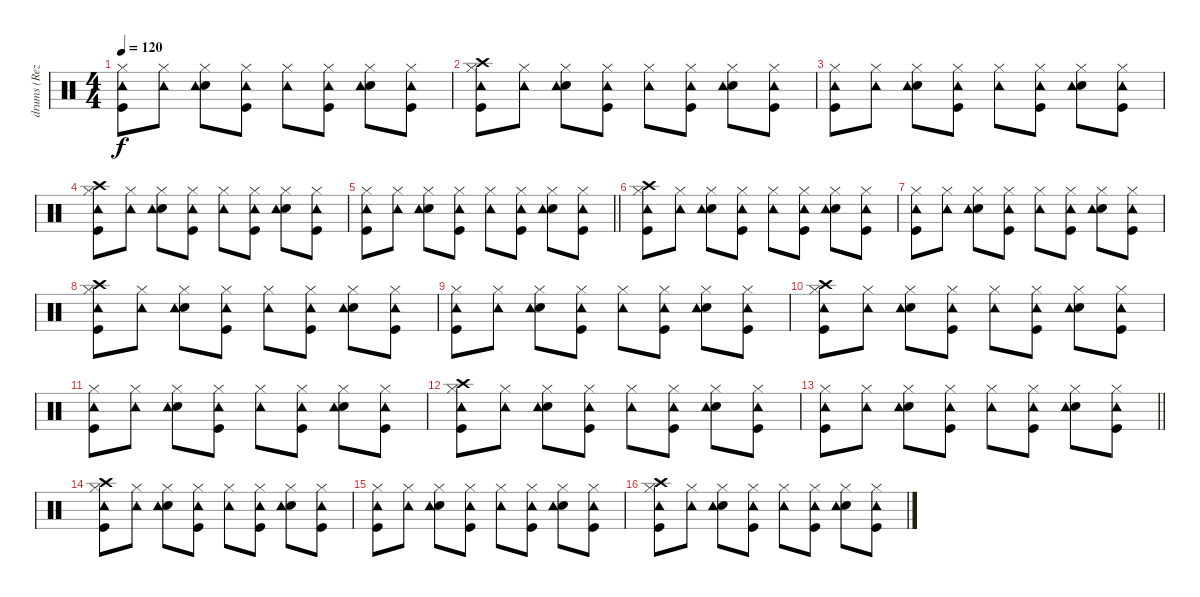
\track ("drums (Reza)" "drums (Rez") {instrument percussion}
\staff {score}
\articulation defaults
\ts (4 4)
\tempo 120
\clef neutral
\ks c
("Hi-Hat (closed)" "Kick (hit)" "Tambourine (hit)").8{dy f} ("Hi-Hat (closed)" "Tambourine (hit)").8 ("Hi-Hat (closed)" "Snare (hit) 2" "Tambourine (hit)").8 ("Hi-Hat (closed)" "Kick (hit)" "Tambourine (hit)").8 ("Hi-Hat (closed)" "Tambourine (hit)").8 ("Hi-Hat (closed)" "Kick (hit)" "Tambourine (hit)").8 ("Hi-Hat (closed)" "Snare (hit) 2" "Tambourine (hit)").8 ("Hi-Hat (closed)" "Kick (hit)" "Tambourine (hit)").8 |
("Hi-Hat (closed)" "Kick (hit)" "Crash high (hit)" "Tambourine (hit)").8 ("Hi-Hat (closed)" "Tambourine (hit)").8 ("Hi-Hat (closed)" "Snare (hit) 2" "Tambourine (hit)").8 ("Hi-Hat (closed)" "Kick (hit)" "Tambourine (hit)").8 ("Hi-Hat (closed)" "Tambourine (hit)").8 ("Hi-Hat (closed)" "Kick (hit)" "Tambourine (hit)").8 ("Hi-Hat (closed)" "Snare (hit) 2" "Tambourine (hit)").8 ("Hi-Hat (closed)" "Kick (hit)" "Tambourine (hit)").8 |
("Hi-Hat (closed)" "Kick (hit)" "Tambourine (hit)").8 ("Hi-Hat (closed)" "Tambourine (hit)").8 ("Hi-Hat (closed)" "Snare (hit) 2" "Tambourine (hit)").8 ("Hi-Hat (closed)" "Kick (hit)" "Tambourine (hit)").8 ("Hi-Hat (closed)" "Tambourine (hit)").8 ("Hi-Hat (closed)" "Kick (hit)" "Tambourine (hit)").8 ("Hi-Hat (closed)" "Snare (hit) 2" "Tambourine (hit)").8 ("Hi-Hat (closed)" "Kick (hit)" "Tambourine (hit)").8 |
("Hi-Hat (closed)" "Kick (hit)" "Crash high (hit)" "Tambourine (hit)").8 ("Hi-Hat (closed)" "Tambourine (hit)").8 ("Hi-Hat (closed)" "Snare (hit) 2" "Tambourine (hit)").8 ("Hi-Hat (closed)" "Kick (hit)" "Tambourine (hit)").8 ("Hi-Hat (closed)" "Tambourine (hit)").8 ("Hi-Hat (closed)" "Kick (hit)" "Tambourine (hit)").8 ("Hi-Hat (closed)" "Snare (hit) 2" "Tambourine (hit)").8 ("Hi-Hat (closed)" "Kick (hit)" "Tambourine (hit)").8 |
\barLineRight lightlight
("Hi-Hat (closed)" "Kick (hit)" "Tambourine (hit)").8 ("Hi-Hat (closed)" "Tambourine (hit)").8 ("Hi-Hat (closed)" "Snare (hit) 2" "Tambourine (hit)").8 ("Hi-Hat (closed)" "Kick (hit)" "Tambourine (hit)").8 ("Hi-Hat (closed)" "Tambourine (hit)").8 ("Hi-Hat (closed)" "Kick (hit)" "Tambourine (hit)").8 ("Hi-Hat (closed)" "Snare (hit) 2" "Tambourine (hit)").8 ("Hi-Hat (closed)" "Kick (hit)" "Tambourine (hit)").8 |
("Hi-Hat (closed)" "Kick (hit)" "Crash high (hit)" "Tambourine (hit)").8 ("Hi-Hat (closed)" "Tambourine (hit)").8 ("Hi-Hat (closed)" "Snare (hit) 2" "Tambourine (hit)").8 ("Hi-Hat (closed)" "Kick (hit)" "Tambourine (hit)").8 ("Hi-Hat (closed)" "Tambourine (hit)").8 ("Hi-Hat (closed)" "Kick (hit)" "Tambourine (hit)").8 ("Hi-Hat (closed)" "Snare (hit) 2" "Tambourine (hit)").8 ("Hi-Hat (closed)" "Kick (hit)" "Tambourine (hit)").8 |
("Hi-Hat (closed)" "Kick (hit)" "Tambourine (hit)").8 ("Hi-Hat (closed)" "Tambourine (hit)").8 ("Hi-Hat (closed)" "Snare (hit) 2" "Tambourine (hit)").8 ("Hi-Hat (closed)" "Kick (hit)" "Tambourine (hit)").8 ("Hi-Hat (closed)" "Tambourine (hit)").8 ("Hi-Hat (closed)" "Kick (hit)" "Tambourine (hit)").8 ("Hi-Hat (closed)" "Snare (hit) 2" "Tambourine (hit)").8 ("Hi-Hat (closed)" "Kick (hit)" "Tambourine (hit)").8 |
("Hi-Hat (closed)" "Kick (hit)" "Crash high (hit)" "Tambourine (hit)").8 ("Hi-Hat (closed)" "Tambourine (hit)").8 ("Hi-Hat (closed)" "Snare (hit) 2" "Tambourine (hit)").8 ("Hi-Hat (closed)" "Kick (hit)" "Tambourine (hit)").8 ("Hi-Hat (closed)" "Tambourine (hit)").8 ("Hi-Hat (closed)" "Kick (hit)" "Tambourine (hit)").8 ("Hi-Hat (closed)" "Snare (hit) 2" "Tambourine (hit)").8 ("Hi-Hat (closed)" "Kick (hit)" "Tambourine (hit)").8 |
("Hi-Hat (closed)" "Kick (hit)" "Tambourine (hit)").8 ("Hi-Hat (closed)" "Tambourine (hit)").8 ("Hi-Hat (closed)" "Snare (hit) 2" "Tambourine (hit)").8 ("Hi-Hat (closed)" "Kick (hit)" "Tambourine (hit)").8 ("Hi-Hat (closed)" "Tambourine (hit)").8 ("Hi-Hat (closed)" "Kick (hit)" "Tambourine (hit)").8 ("Hi-Hat (closed)" "Snare (hit) 2" "Tambourine (hit)").8 ("Hi-Hat (closed)" "Kick (hit)" "Tambourine (hit)").8 |
("Hi-Hat (closed)" "Kick (hit)" "Crash high (hit)" "Tambourine (hit)").8 ("Hi-Hat (closed)" "Tambourine (hit)").8 ("Hi-Hat (closed)" "Snare (hit) 2" "Tambourine (hit)").8 ("Hi-Hat (closed)" "Kick (hit)" "Tambourine (hit)").8 ("Hi-Hat (closed)" "Tambourine (hit)").8 ("Hi-Hat (closed)" "Kick (hit)" "Tambourine (hit)").8 ("Hi-Hat (closed)" "Snare (hit) 2" "Tambourine (hit)").8 ("Hi-Hat (closed)" "Kick (hit)" "Tambourine (hit)").8 |
("Hi-Hat (closed)" "Kick (hit)" "Tambourine (hit)").8 ("Hi-Hat (closed)" "Tambourine (hit)").8 ("Hi-Hat (closed)" "Snare (hit) 2" "Tambourine (hit)").8 ("Hi-Hat (closed)" "Kick (hit)" "Tambourine (hit)").8 ("Hi-Hat (closed)" "Tambourine (hit)").8 ("Hi-Hat (closed)" "Kick (hit)" "Tambourine (hit)").8 ("Hi-Hat (closed)" "Snare (hit) 2" "Tambourine (hit)").8 ("Hi-Hat (closed)" "Kick (hit)" "Tambourine (hit)").8 |
("Hi-Hat (closed)" "Kick (hit)" "Crash high (hit)" "Tambourine (hit)").8 ("Hi-Hat (closed)" "Tambourine (hit)").8 ("Hi-Hat (closed)" "Snare (hit) 2" "Tambourine (hit)").8 ("Hi-Hat (closed)" "Kick (hit)" "Tambourine (hit)").8 ("Hi-Hat (closed)" "Tambourine (hit)").8 ("Hi-Hat (closed)" "Kick (hit)" "Tambourine (hit)").8 ("Hi-Hat (closed)" "Snare (hit) 2" "Tambourine (hit)").8 ("Hi-Hat (closed)" "Kick (hit)" "Tambourine (hit)").8 |
\barLineRight lightlight
("Hi-Hat (closed)" "Kick (hit)" "Tambourine (hit)").8 ("Hi-Hat (closed)" "Tambourine (hit)").8 ("Hi-Hat (closed)" "Snare (hit) 2" "Tambourine (hit)").8 ("Hi-Hat (closed)" "Kick (hit)" "Tambourine (hit)").8 ("Hi-Hat (closed)" "Tambourine (hit)").8 ("Hi-Hat (closed)" "Kick (hit)" "Tambourine (hit)").8 ("Hi-Hat (closed)" "Snare (hit) 2" "Tambourine (hit)").8 ("Hi-Hat (closed)" "Kick (hit)" "Tambourine (hit)").8 |
("Hi-Hat (closed)" "Kick (hit)" "Crash high (hit)" "Tambourine (hit)").8 ("Hi-Hat (closed)" "Tambourine (hit)").8 ("Hi-Hat (closed)" "Snare (hit) 2" "Tambourine (hit)").8 ("Hi-Hat (closed)" "Kick (hit)" "Tambourine (hit)").8 ("Hi-Hat (closed)" "Tambourine (hit)").8 ("Hi-Hat (closed)" "Kick (hit)" "Tambourine (hit)").8 ("Hi-Hat (closed)" "Snare (hit) 2" "Tambourine (hit)").8 ("Hi-Hat (closed)" "Kick (hit)" "Tambourine (hit)").8 |
("Hi-Hat (closed)" "Kick (hit)" "Tambourine (hit)").8 ("Hi-Hat (closed)" "Tambourine (hit)").8 ("Hi-Hat (closed)" "Snare (hit) 2" "Tambourine (hit)").8 ("Hi-Hat (closed)" "Kick (hit)" "Tambourine (hit)").8 ("Hi-Hat (closed)" "Tambourine (hit)").8 ("Hi-Hat (closed)" "Kick (hit)" "Tambourine (hit)").8 ("Hi-Hat (closed)" "Snare (hit) 2" "Tambourine (hit)").8 ("Hi-Hat (closed)" "Kick (hit)" "Tambourine (hit)").8 |
("Hi-Hat (closed)" "Kick (hit)" "Crash high (hit)" "Tambourine (hit)").8 ("Hi-Hat (closed)" "Tambourine (hit)").8 ("Hi-Hat (closed)" "Snare (hit) 2" "Tambourine (hit)").8 ("Hi-Hat (closed)" "Kick (hit)" "Tambourine (hit)").8 ("Hi-Hat (closed)" "Tambourine (hit)").8 ("Hi-Hat (closed)" "Kick (hit)" "Tambourine (hit)").8 ("Hi-Hat (closed)" "Snare (hit) 2" "Tambourine (hit)").8 ("Hi-Hat (closed)" "Kick (hit)" "Tambourine (hit)").8
